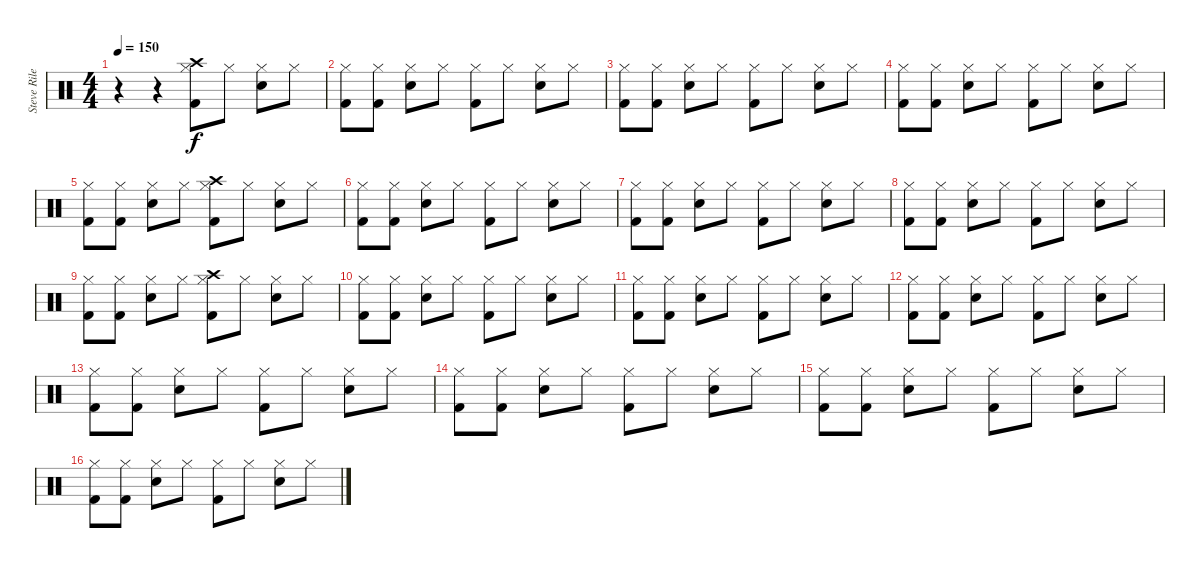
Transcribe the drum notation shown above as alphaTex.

\track ("Steve Riley-Drums" "Steve Rile") {instrument percussion}
\staff {score}
\articulation defaults
\ts (4 4)
\tempo 150
\clef neutral
\ks c
r.4{dy f} r.4 ("Crash high (hit)" "Kick (hit) 2" "Hi-Hat (closed)").8 "Hi-Hat (closed)".8 ("Snare (hit) 2" "Hi-Hat (closed)").8 "Hi-Hat (closed)".8 |
("Kick (hit) 2" "Hi-Hat (closed)").8 ("Kick (hit) 2" "Hi-Hat (closed)").8 ("Snare (hit) 2" "Hi-Hat (closed)").8 "Hi-Hat (closed)".8 ("Kick (hit) 2" "Hi-Hat (closed)").8 "Hi-Hat (closed)".8 ("Snare (hit) 2" "Hi-Hat (closed)").8 "Hi-Hat (closed)".8 |
("Kick (hit) 2" "Hi-Hat (closed)").8 ("Kick (hit) 2" "Hi-Hat (closed)").8 ("Snare (hit) 2" "Hi-Hat (closed)").8 "Hi-Hat (closed)".8 ("Kick (hit) 2" "Hi-Hat (closed)").8 "Hi-Hat (closed)".8 ("Snare (hit) 2" "Hi-Hat (closed)").8 "Hi-Hat (closed)".8 |
("Kick (hit) 2" "Hi-Hat (closed)").8 ("Kick (hit) 2" "Hi-Hat (closed)").8 ("Snare (hit) 2" "Hi-Hat (closed)").8 "Hi-Hat (closed)".8 ("Kick (hit) 2" "Hi-Hat (closed)").8 "Hi-Hat (closed)".8 ("Snare (hit) 2" "Hi-Hat (closed)").8 "Hi-Hat (closed)".8 |
("Kick (hit) 2" "Hi-Hat (closed)").8 ("Kick (hit) 2" "Hi-Hat (closed)").8 ("Snare (hit) 2" "Hi-Hat (closed)").8 "Hi-Hat (closed)".8 ("Crash high (hit)" "Kick (hit) 2" "Hi-Hat (closed)").8 "Hi-Hat (closed)".8 ("Snare (hit) 2" "Hi-Hat (closed)").8 "Hi-Hat (closed)".8 |
("Kick (hit) 2" "Hi-Hat (closed)").8 ("Kick (hit) 2" "Hi-Hat (closed)").8 ("Snare (hit) 2" "Hi-Hat (closed)").8 "Hi-Hat (closed)".8 ("Kick (hit) 2" "Hi-Hat (closed)").8 "Hi-Hat (closed)".8 ("Snare (hit) 2" "Hi-Hat (closed)").8 "Hi-Hat (closed)".8 |
("Kick (hit) 2" "Hi-Hat (closed)").8 ("Kick (hit) 2" "Hi-Hat (closed)").8 ("Snare (hit) 2" "Hi-Hat (closed)").8 "Hi-Hat (closed)".8 ("Kick (hit) 2" "Hi-Hat (closed)").8 "Hi-Hat (closed)".8 ("Snare (hit) 2" "Hi-Hat (closed)").8 "Hi-Hat (closed)".8 |
("Kick (hit) 2" "Hi-Hat (closed)").8 ("Kick (hit) 2" "Hi-Hat (closed)").8 ("Snare (hit) 2" "Hi-Hat (closed)").8 "Hi-Hat (closed)".8 ("Kick (hit) 2" "Hi-Hat (closed)").8 "Hi-Hat (closed)".8 ("Snare (hit) 2" "Hi-Hat (closed)").8 "Hi-Hat (closed)".8 |
("Kick (hit) 2" "Hi-Hat (closed)").8 ("Kick (hit) 2" "Hi-Hat (closed)").8 ("Snare (hit) 2" "Hi-Hat (closed)").8 "Hi-Hat (closed)".8 ("Crash high (hit)" "Kick (hit) 2" "Hi-Hat (closed)").8 "Hi-Hat (closed)".8 ("Snare (hit) 2" "Hi-Hat (closed)").8 "Hi-Hat (closed)".8 |
("Kick (hit) 2" "Hi-Hat (closed)").8 ("Kick (hit) 2" "Hi-Hat (closed)").8 ("Snare (hit) 2" "Hi-Hat (closed)").8 "Hi-Hat (closed)".8 ("Kick (hit) 2" "Hi-Hat (closed)").8 "Hi-Hat (closed)".8 ("Snare (hit) 2" "Hi-Hat (closed)").8 "Hi-Hat (closed)".8 |
("Kick (hit) 2" "Hi-Hat (closed)").8 ("Kick (hit) 2" "Hi-Hat (closed)").8 ("Snare (hit) 2" "Hi-Hat (closed)").8 "Hi-Hat (closed)".8 ("Kick (hit) 2" "Hi-Hat (closed)").8 "Hi-Hat (closed)".8 ("Snare (hit) 2" "Hi-Hat (closed)").8 "Hi-Hat (closed)".8 |
("Kick (hit) 2" "Hi-Hat (closed)").8 ("Kick (hit) 2" "Hi-Hat (closed)").8 ("Snare (hit) 2" "Hi-Hat (closed)").8 "Hi-Hat (closed)".8 ("Kick (hit) 2" "Hi-Hat (closed)").8 "Hi-Hat (closed)".8 ("Snare (hit) 2" "Hi-Hat (closed)").8 "Hi-Hat (closed)".8 |
("Kick (hit) 2" "Hi-Hat (closed)").8 ("Kick (hit) 2" "Hi-Hat (closed)").8 ("Snare (hit) 2" "Hi-Hat (closed)").8 "Hi-Hat (closed)".8 ("Kick (hit) 2" "Hi-Hat (closed)").8 "Hi-Hat (closed)".8 ("Snare (hit) 2" "Hi-Hat (closed)").8 "Hi-Hat (closed)".8 |
("Kick (hit) 2" "Hi-Hat (closed)").8 ("Kick (hit) 2" "Hi-Hat (closed)").8 ("Snare (hit) 2" "Hi-Hat (closed)").8 "Hi-Hat (closed)".8 ("Kick (hit) 2" "Hi-Hat (closed)").8 "Hi-Hat (closed)".8 ("Snare (hit) 2" "Hi-Hat (closed)").8 "Hi-Hat (closed)".8 |
("Kick (hit) 2" "Hi-Hat (closed)").8 ("Kick (hit) 2" "Hi-Hat (closed)").8 ("Snare (hit) 2" "Hi-Hat (closed)").8 "Hi-Hat (closed)".8 ("Kick (hit) 2" "Hi-Hat (closed)").8 "Hi-Hat (closed)".8 ("Snare (hit) 2" "Hi-Hat (closed)").8 "Hi-Hat (closed)".8 |
("Kick (hit) 2" "Hi-Hat (closed)").8 ("Kick (hit) 2" "Hi-Hat (closed)").8 ("Snare (hit) 2" "Hi-Hat (closed)").8 "Hi-Hat (closed)".8 ("Kick (hit) 2" "Hi-Hat (closed)").8 "Hi-Hat (closed)".8 ("Snare (hit) 2" "Hi-Hat (closed)").8 "Hi-Hat (closed)".8
